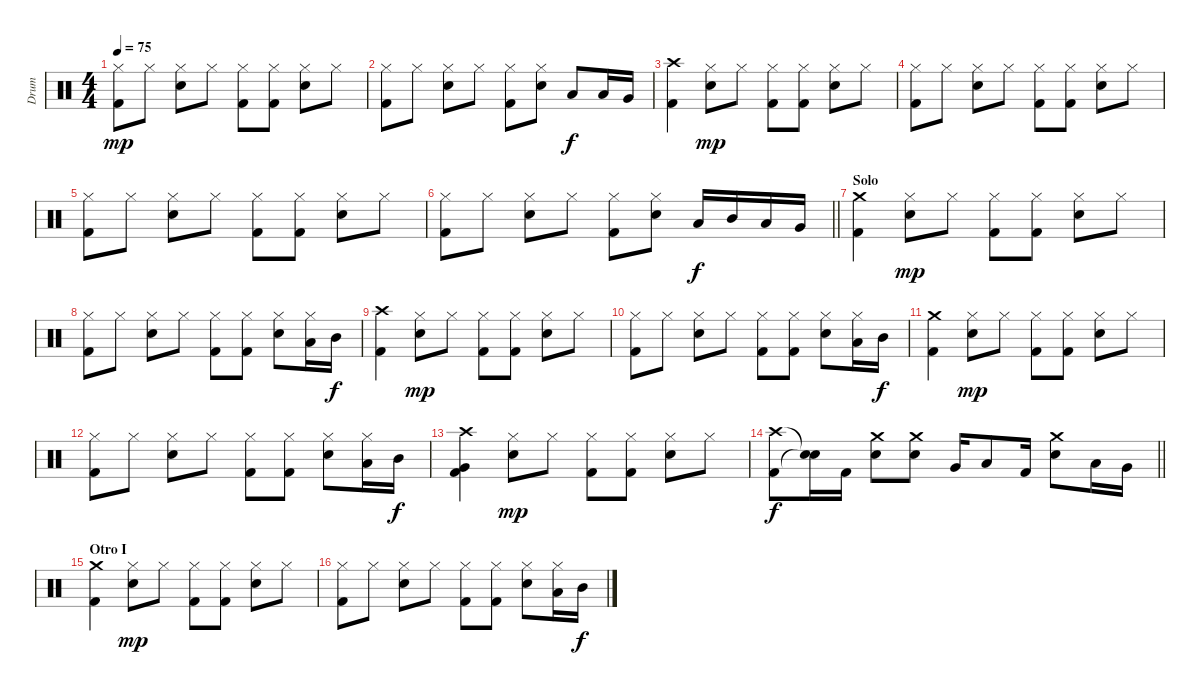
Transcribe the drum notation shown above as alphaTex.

\track ("Drum" "Drum") {instrument percussion}
\staff {score}
\articulation defaults
\ts (4 4)
\tempo 75
\clef neutral
\ks c
("Hi-Hat (closed)" "Kick (hit) 2").8{dy mp} "Hi-Hat (closed)".8 ("Hi-Hat (closed)" "Snare (hit) 2").8 "Hi-Hat (closed)".8 ("Hi-Hat (closed)" "Kick (hit) 2").8 ("Hi-Hat (closed)" "Kick (hit) 2").8 ("Hi-Hat (closed)" "Snare (hit) 2").8 "Hi-Hat (closed)".8 |
("Hi-Hat (closed)" "Kick (hit) 2").8 "Hi-Hat (closed)".8 ("Hi-Hat (closed)" "Snare (hit) 2").8 "Hi-Hat (closed)".8 ("Hi-Hat (closed)" "Kick (hit) 2").8 ("Hi-Hat (closed)" "Snare (hit) 2").8 "Low Tom (hit)".8{dy f} "Low Tom (hit)".16 "Very Low Tom (hit)".16 |
("Crash high (hit)" "Kick (hit) 2").4 ("Hi-Hat (closed)" "Snare (hit) 2").8{dy mp} "Hi-Hat (closed)".8 ("Hi-Hat (closed)" "Kick (hit) 2").8 ("Hi-Hat (closed)" "Kick (hit) 2").8 ("Hi-Hat (closed)" "Snare (hit) 2").8 "Hi-Hat (closed)".8 |
("Hi-Hat (closed)" "Kick (hit) 2").8 "Hi-Hat (closed)".8 ("Hi-Hat (closed)" "Snare (hit) 2").8 "Hi-Hat (closed)".8 ("Hi-Hat (closed)" "Kick (hit) 2").8 ("Hi-Hat (closed)" "Kick (hit) 2").8 ("Hi-Hat (closed)" "Snare (hit) 2").8 "Hi-Hat (closed)".8 |
("Hi-Hat (closed)" "Kick (hit) 2").8 "Hi-Hat (closed)".8 ("Hi-Hat (closed)" "Snare (hit) 2").8 "Hi-Hat (closed)".8 ("Hi-Hat (closed)" "Kick (hit) 2").8 ("Hi-Hat (closed)" "Kick (hit) 2").8 ("Hi-Hat (closed)" "Snare (hit) 2").8 "Hi-Hat (closed)".8 |
\barLineRight lightlight
("Hi-Hat (closed)" "Kick (hit) 2").8 "Hi-Hat (closed)".8 ("Hi-Hat (closed)" "Snare (hit) 2").8 "Hi-Hat (closed)".8 ("Hi-Hat (closed)" "Kick (hit) 2").8 ("Hi-Hat (closed)" "Snare (hit) 2").8 "Low Tom (hit)".16{dy f} "Mid Tom (hit)".16 "Low Tom (hit)".16 "Very Low Tom (hit)".16 |
\section ("" "Solo")
("Crash medium (hit)" "Kick (hit) 2").4 ("Hi-Hat (closed)" "Snare (hit) 2").8{dy mp} "Hi-Hat (closed)".8 ("Hi-Hat (closed)" "Kick (hit) 2").8 ("Hi-Hat (closed)" "Kick (hit) 2").8 ("Hi-Hat (closed)" "Snare (hit) 2").8 "Hi-Hat (closed)".8 |
("Hi-Hat (closed)" "Kick (hit) 2").8 "Hi-Hat (closed)".8 ("Hi-Hat (closed)" "Snare (hit) 2").8 "Hi-Hat (closed)".8 ("Hi-Hat (closed)" "Kick (hit) 2").8 ("Hi-Hat (closed)" "Kick (hit) 2").8 ("Hi-Hat (closed)" "Snare (hit) 2").8 ("Hi-Hat (closed)" "Low Tom (hit)").16 "Mid Tom (hit)".16{dy f} |
("Crash high (hit)" "Kick (hit) 2").4 ("Hi-Hat (closed)" "Snare (hit) 2").8{dy mp} "Hi-Hat (closed)".8 ("Hi-Hat (closed)" "Kick (hit) 2").8 ("Hi-Hat (closed)" "Kick (hit) 2").8 ("Hi-Hat (closed)" "Snare (hit) 2").8 "Hi-Hat (closed)".8 |
("Hi-Hat (closed)" "Kick (hit) 2").8 "Hi-Hat (closed)".8 ("Hi-Hat (closed)" "Snare (hit) 2").8 "Hi-Hat (closed)".8 ("Hi-Hat (closed)" "Kick (hit) 2").8 ("Hi-Hat (closed)" "Kick (hit) 2").8 ("Hi-Hat (closed)" "Snare (hit) 2").8 ("Hi-Hat (closed)" "Low Tom (hit)").16 "Mid Tom (hit)".16{dy f} |
("Crash medium (hit)" "Kick (hit) 2").4 ("Hi-Hat (closed)" "Snare (hit) 2").8{dy mp} "Hi-Hat (closed)".8 ("Hi-Hat (closed)" "Kick (hit) 2").8 ("Hi-Hat (closed)" "Kick (hit) 2").8 ("Hi-Hat (closed)" "Snare (hit) 2").8 "Hi-Hat (closed)".8 |
("Hi-Hat (closed)" "Kick (hit) 2").8 "Hi-Hat (closed)".8 ("Hi-Hat (closed)" "Snare (hit) 2").8 "Hi-Hat (closed)".8 ("Hi-Hat (closed)" "Kick (hit) 2").8 ("Hi-Hat (closed)" "Kick (hit) 2").8 ("Hi-Hat (closed)" "Snare (hit) 2").8 ("Hi-Hat (closed)" "Low Tom (hit)").16 "Mid Tom (hit)".16{dy f} |
("Crash high (hit)" "Very Low Tom (hit)" "Kick (hit) 2").4 ("Hi-Hat (closed)" "Snare (hit) 2").8{dy mp} "Hi-Hat (closed)".8 ("Hi-Hat (closed)" "Kick (hit) 2").8 ("Hi-Hat (closed)" "Kick (hit) 2").8 ("Hi-Hat (closed)" "Snare (hit) 2").8 "Hi-Hat (closed)".8 |
\barLineRight lightlight
("Crash high (hit)" "Kick (hit) 2").8{dy f} ("Snare (hit)"{t} "Snare (hit)"{t}).16 "Kick (hit) 2".16 ("Crash medium (hit)" "Snare (hit) 2").8 ("Crash medium (hit)" "Snare (hit) 2").8 "Very Low Tom (hit)".16 "Low Tom (hit)".8 "Kick (hit) 2".16 ("Crash medium (hit)" "Snare (hit) 2").8 "Low Tom (hit)".16 "Very Low Tom (hit)".16 |
\section ("" "Otro I")
("Crash medium (hit)" "Kick (hit) 2").4 ("Hi-Hat (closed)" "Snare (hit) 2").8{dy mp} "Hi-Hat (closed)".8 ("Hi-Hat (closed)" "Kick (hit) 2").8 ("Hi-Hat (closed)" "Kick (hit) 2").8 ("Hi-Hat (closed)" "Snare (hit) 2").8 "Hi-Hat (closed)".8 |
("Hi-Hat (closed)" "Kick (hit) 2").8 "Hi-Hat (closed)".8 ("Hi-Hat (closed)" "Snare (hit) 2").8 "Hi-Hat (closed)".8 ("Hi-Hat (closed)" "Kick (hit) 2").8 ("Hi-Hat (closed)" "Kick (hit) 2").8 ("Hi-Hat (closed)" "Snare (hit) 2").8 ("Hi-Hat (closed)" "Low Tom (hit)").16 "Mid Tom (hit)".16{dy f}
